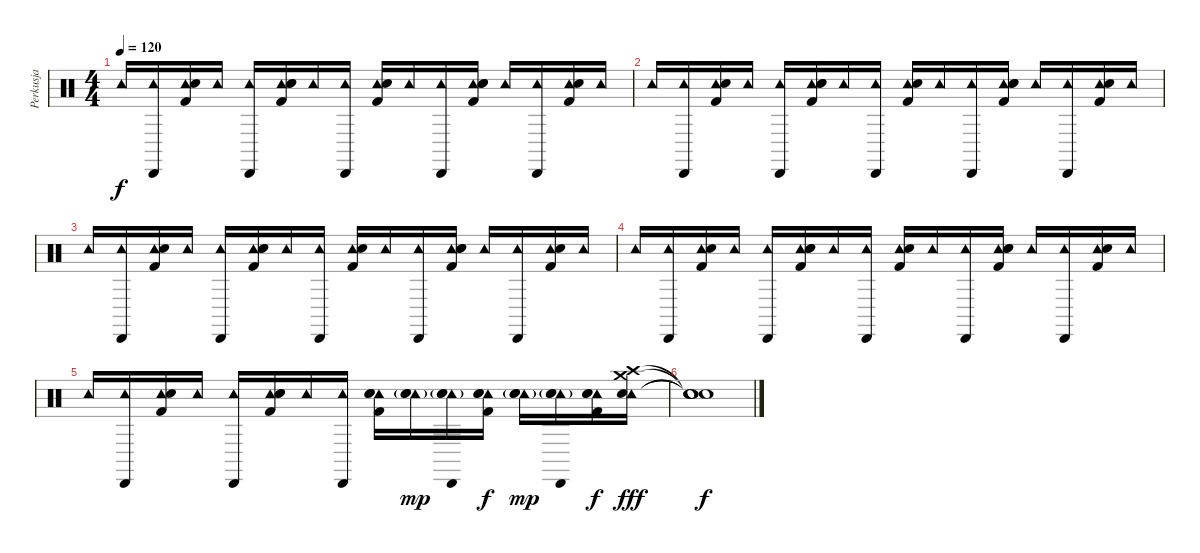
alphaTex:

\track ("Perkusja" "Perkusja") {instrument percussion}
\staff {score}
\articulation defaults
\ts (4 4)
\tempo 120
\clef neutral
\ks c "Tambourine (hit)".16{dy f}
("Tambourine (hit)" "Cabasa (hit)").16 ("Tambourine (hit)" "Kick (hit) 2" "Snare (hit) 2").16 "Tambourine (hit)".16 ("Tambourine (hit)" "Cabasa (hit)").16 ("Tambourine (hit)" "Kick (hit) 2" "Electric Snare (hit)" "Snare (hit) 2").16 "Tambourine (hit)".16 ("Tambourine (hit)" "Cabasa (hit)").16 ("Tambourine (hit)" "Kick (hit) 2" "Snare (hit) 2").16 "Tambourine (hit)".16 ("Tambourine (hit)" "Cabasa (hit)").16 ("Tambourine (hit)" "Kick (hit) 2" "Electric Snare (hit)" "Snare (hit) 2").16 "Tambourine (hit)".16 ("Tambourine (hit)" "Cabasa (hit)").16 ("Tambourine (hit)" "Kick (hit) 2" "Snare (hit) 2").16 "Tambourine (hit)".16 |
"Tambourine (hit)".16 ("Tambourine (hit)" "Cabasa (hit)").16 ("Tambourine (hit)" "Kick (hit) 2" "Snare (hit) 2").16 "Tambourine (hit)".16 ("Tambourine (hit)" "Cabasa (hit)").16 ("Tambourine (hit)" "Kick (hit) 2" "Electric Snare (hit)" "Snare (hit) 2").16 "Tambourine (hit)".16 ("Tambourine (hit)" "Cabasa (hit)").16 ("Tambourine (hit)" "Kick (hit) 2" "Snare (hit) 2").16 "Tambourine (hit)".16 ("Tambourine (hit)" "Cabasa (hit)").16 ("Tambourine (hit)" "Kick (hit) 2" "Electric Snare (hit)" "Snare (hit) 2").16 "Tambourine (hit)".16 ("Tambourine (hit)" "Cabasa (hit)").16 ("Tambourine (hit)" "Kick (hit) 2" "Snare (hit) 2").16 "Tambourine (hit)".16 |
"Tambourine (hit)".16 ("Tambourine (hit)" "Cabasa (hit)").16 ("Tambourine (hit)" "Kick (hit) 2" "Snare (hit) 2").16 "Tambourine (hit)".16 ("Tambourine (hit)" "Cabasa (hit)").16 ("Tambourine (hit)" "Kick (hit) 2" "Electric Snare (hit)" "Snare (hit) 2").16 "Tambourine (hit)".16 ("Tambourine (hit)" "Cabasa (hit)").16 ("Tambourine (hit)" "Kick (hit) 2" "Snare (hit) 2").16 "Tambourine (hit)".16 ("Tambourine (hit)" "Cabasa (hit)").16 ("Tambourine (hit)" "Kick (hit) 2" "Electric Snare (hit)" "Snare (hit) 2").16 "Tambourine (hit)".16 ("Tambourine (hit)" "Cabasa (hit)").16 ("Tambourine (hit)" "Kick (hit) 2" "Snare (hit) 2").16 "Tambourine (hit)".16 |
"Tambourine (hit)".16 ("Tambourine (hit)" "Cabasa (hit)").16 ("Tambourine (hit)" "Kick (hit) 2" "Snare (hit) 2").16 "Tambourine (hit)".16 ("Tambourine (hit)" "Cabasa (hit)").16 ("Tambourine (hit)" "Kick (hit) 2" "Electric Snare (hit)" "Snare (hit) 2").16 "Tambourine (hit)".16 ("Tambourine (hit)" "Cabasa (hit)").16 ("Tambourine (hit)" "Kick (hit) 2" "Snare (hit) 2").16 "Tambourine (hit)".16 ("Tambourine (hit)" "Cabasa (hit)").16 ("Tambourine (hit)" "Kick (hit) 2" "Electric Snare (hit)" "Snare (hit) 2").16 "Tambourine (hit)".16 ("Tambourine (hit)" "Cabasa (hit)").16 ("Tambourine (hit)" "Kick (hit) 2" "Snare (hit) 2").16 "Tambourine (hit)".16 |
"Tambourine (hit)".16 ("Tambourine (hit)" "Cabasa (hit)").16 ("Tambourine (hit)" "Kick (hit) 2" "Snare (hit) 2").16 "Tambourine (hit)".16 ("Tambourine (hit)" "Cabasa (hit)").16 ("Tambourine (hit)" "Kick (hit) 2" "Electric Snare (hit)" "Snare (hit) 2").16 "Tambourine (hit)".16 ("Tambourine (hit)" "Cabasa (hit)").16 ("Tambourine (hit)" "Kick (hit) 2" "Snare (hit) 2" "Electric Snare (hit)").16 ("Tambourine (hit)" "Electric Snare (hit)"{g} "Electric Snare (hit)"{g}).16{dy mp} ("Tambourine (hit)" "Electric Snare (hit)"{g} "Electric Snare (hit)"{g} "Cabasa (hit)").16 ("Tambourine (hit)" "Kick (hit) 2" "Electric Snare (hit)" "Snare (hit) 2").16{dy f} ("Tambourine (hit)" "Electric Snare (hit)"{g} "Electric Snare (hit)"{g}).16{dy mp} ("Tambourine (hit)" "Electric Snare (hit)"{g} "Electric Snare (hit)"{g} "Cabasa (hit)").16 ("Tambourine (hit)" "Kick (hit) 2" "Snare (hit) 2" "Electric Snare (hit)").16{dy f} ("Tambourine (hit)" "Electric Snare (hit)" "Crash high (hit)" "Crash medium (hit)").16{dy fff} |
("Snare (hit)"{t} "Snare (hit)"{t} "Snare (hit)"{t} "Snare (hit)"{t}).1{dy f}
